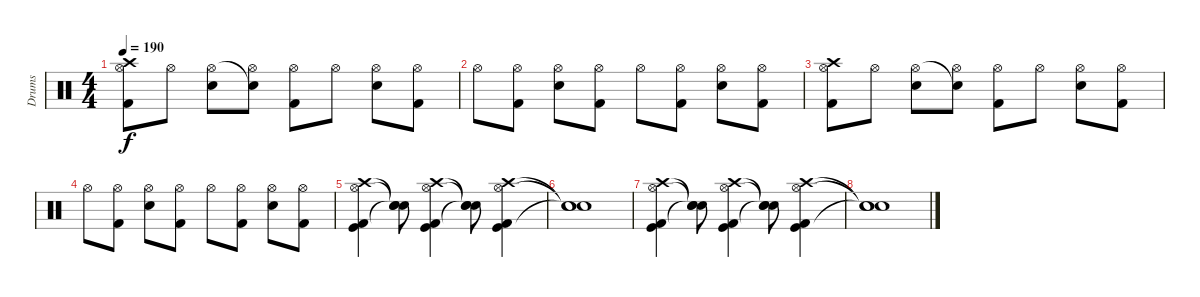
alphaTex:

\track ("Drums" "Drums") {instrument percussion}
\staff {score}
\articulation defaults
\ts (4 4)
\tempo 190
\clef neutral
\ks c
("Crash high (hit)" "Hi-Hat (open)" "Kick (hit) 2").8{dy f} "Hi-Hat (open)".8 ("Hi-Hat (open)" "Electric Snare (hit)").8 ("Snare (hit)"{t} "Hi-Hat (open)").8 ("Hi-Hat (open)" "Kick (hit) 2").8 "Hi-Hat (open)".8 ("Hi-Hat (open)" "Electric Snare (hit)").8 ("Hi-Hat (open)" "Kick (hit) 2").8 |
"Hi-Hat (open)".8 ("Hi-Hat (open)" "Kick (hit) 2").8 ("Hi-Hat (open)" "Electric Snare (hit)").8 ("Hi-Hat (open)" "Kick (hit) 2").8 "Hi-Hat (open)".8 ("Hi-Hat (open)" "Kick (hit) 2").8 ("Hi-Hat (open)" "Electric Snare (hit)").8 ("Hi-Hat (open)" "Kick (hit) 2").8 |
("Crash high (hit)" "Hi-Hat (open)" "Kick (hit) 2").8 "Hi-Hat (open)".8 ("Hi-Hat (open)" "Electric Snare (hit)").8 ("Snare (hit)"{t} "Hi-Hat (open)").8 ("Hi-Hat (open)" "Kick (hit) 2").8 "Hi-Hat (open)".8 ("Hi-Hat (open)" "Electric Snare (hit)").8 ("Hi-Hat (open)" "Kick (hit) 2").8 |
"Hi-Hat (open)".8 ("Hi-Hat (open)" "Kick (hit) 2").8 ("Hi-Hat (open)" "Electric Snare (hit)").8 ("Hi-Hat (open)" "Kick (hit) 2").8 "Hi-Hat (open)".8 ("Hi-Hat (open)" "Kick (hit) 2").8 ("Hi-Hat (open)" "Electric Snare (hit)").8 ("Hi-Hat (open)" "Kick (hit) 2").8 |
("Crash high (hit)" "Hi-Hat (open)" "Kick (hit)" "Kick (hit) 2").4 ("Snare (hit)"{t} "Snare (hit)"{t} "Snare (hit)"{t}).8 ("Crash high (hit)" "Hi-Hat (open)" "Kick (hit)" "Kick (hit) 2").4 ("Snare (hit)"{t} "Snare (hit)"{t} "Snare (hit)"{t}).8 ("Crash high (hit)" "Hi-Hat (open)" "Kick (hit)" "Kick (hit) 2").4 |
("Snare (hit)"{t} "Snare (hit)"{t} "Snare (hit)"{t}).1 |
("Crash high (hit)" "Hi-Hat (open)" "Kick (hit)" "Kick (hit) 2").4 ("Snare (hit)"{t} "Snare (hit)"{t} "Snare (hit)"{t}).8 ("Crash high (hit)" "Hi-Hat (open)" "Kick (hit)" "Kick (hit) 2").4 ("Snare (hit)"{t} "Snare (hit)"{t} "Snare (hit)"{t}).8 ("Crash high (hit)" "Hi-Hat (open)" "Kick (hit)" "Kick (hit) 2").4 |
("Snare (hit)"{t} "Snare (hit)"{t} "Snare (hit)"{t}).1
